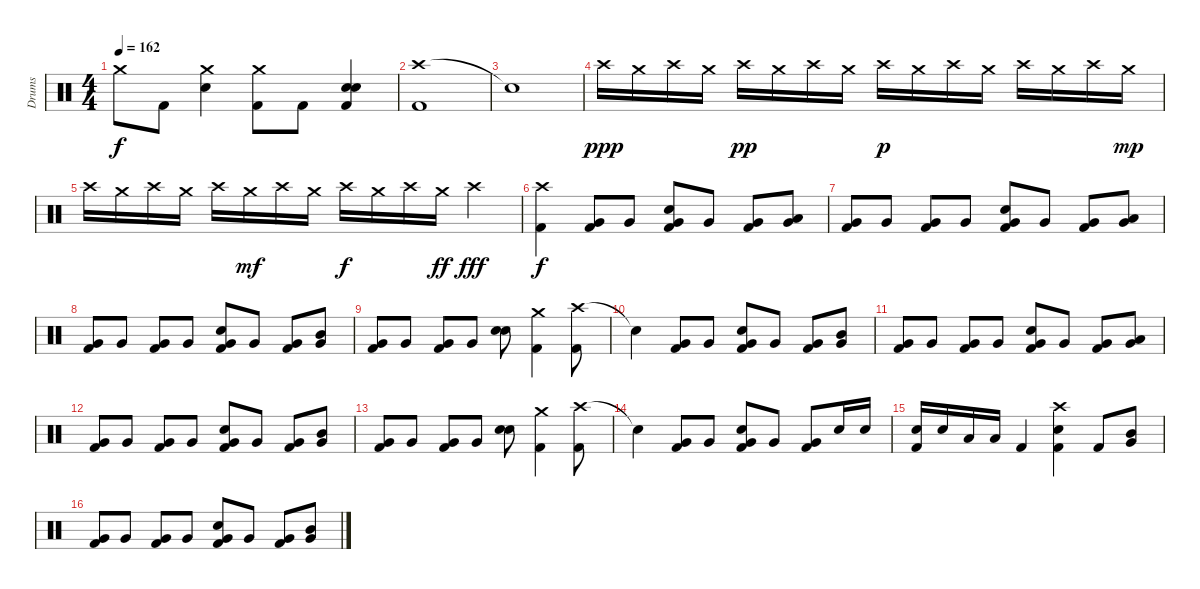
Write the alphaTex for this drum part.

\track ("Drums" "Drums") {instrument percussion}
\staff {score}
\articulation defaults
\ts (4 4)
\tempo 162
\clef neutral
\ks c "Crash medium (hit)".8{dy f} "Kick (hit) 2".8
("Crash medium (hit)" "Snare (hit) 2").4 ("Crash medium (hit)" "Kick (hit) 2").8 "Kick (hit) 2".8 ("Snare (hit) 2" "Snare (hit) 2" "Kick (hit) 2").4 |
("Crash high (hit)" "Kick (hit) 2").1 |
"Snare (hit)"{t}.1 |
"Crash high (hit)".16{dy ppp} "Crash medium (hit)".16 "Crash high (hit)".16 "Crash medium (hit)".16 "Crash high (hit)".16{dy pp} "Crash medium (hit)".16 "Crash high (hit)".16 "Crash medium (hit)".16 "Crash high (hit)".16{dy p} "Crash medium (hit)".16 "Crash high (hit)".16 "Crash medium (hit)".16 "Crash high (hit)".16 "Crash medium (hit)".16 "Crash high (hit)".16 "Crash medium (hit)".16{dy mp} |
"Crash high (hit)".16 "Crash medium (hit)".16 "Crash high (hit)".16 "Crash medium (hit)".16 "Crash high (hit)".16 "Crash medium (hit)".16{dy mf} "Crash high (hit)".16 "Crash medium (hit)".16 "Crash high (hit)".16{dy f} "Crash medium (hit)".16 "Crash high (hit)".16 "Crash medium (hit)".16{dy ff} "Crash high (hit)".4{dy fff} |
("Crash high (hit)" "Kick (hit) 2").4{dy f} ("Very Low Tom (hit)" "Kick (hit) 2").8 "Very Low Tom (hit)".8 ("Very Low Tom (hit)" "Snare (hit) 2" "Kick (hit) 2").8 "Very Low Tom (hit)".8 ("Very Low Tom (hit)" "Kick (hit) 2").8 ("Low Tom (hit)" "Very Low Tom (hit)").8 |
("Very Low Tom (hit)" "Kick (hit) 2").8 "Very Low Tom (hit)".8 ("Very Low Tom (hit)" "Kick (hit) 2").8 "Very Low Tom (hit)".8 ("Very Low Tom (hit)" "Snare (hit) 2" "Kick (hit) 2").8 "Very Low Tom (hit)".8 ("Very Low Tom (hit)" "Kick (hit) 2").8 ("Low Tom (hit)" "Very Low Tom (hit)").8 |
("Very Low Tom (hit)" "Kick (hit) 2").8 "Very Low Tom (hit)".8 ("Very Low Tom (hit)" "Kick (hit) 2").8 "Very Low Tom (hit)".8 ("Very Low Tom (hit)" "Snare (hit) 2" "Kick (hit) 2").8 "Very Low Tom (hit)".8 ("Very Low Tom (hit)" "Kick (hit) 2").8 ("Mid Tom (hit)" "Very Low Tom (hit)").8 |
("Very Low Tom (hit)" "Kick (hit) 2").8 "Very Low Tom (hit)".8 ("Very Low Tom (hit)" "Kick (hit) 2").8 "Very Low Tom (hit)".8 ("Snare (hit) 2" "Snare (hit) 2").8 ("Crash medium (hit)" "Kick (hit) 2").4 ("Crash high (hit)" "Kick (hit) 2").8 |
"Snare (hit)"{t}.4 ("Very Low Tom (hit)" "Kick (hit) 2").8 "Very Low Tom (hit)".8 ("Very Low Tom (hit)" "Snare (hit) 2" "Kick (hit) 2").8 "Very Low Tom (hit)".8 ("Very Low Tom (hit)" "Kick (hit) 2").8 ("Mid Tom (hit)" "Very Low Tom (hit)").8 |
("Very Low Tom (hit)" "Kick (hit) 2").8 "Very Low Tom (hit)".8 ("Very Low Tom (hit)" "Kick (hit) 2").8 "Very Low Tom (hit)".8 ("Very Low Tom (hit)" "Snare (hit) 2" "Kick (hit) 2").8 "Very Low Tom (hit)".8 ("Very Low Tom (hit)" "Kick (hit) 2").8 ("Low Tom (hit)" "Very Low Tom (hit)").8 |
("Very Low Tom (hit)" "Kick (hit) 2").8 "Very Low Tom (hit)".8 ("Very Low Tom (hit)" "Kick (hit) 2").8 "Very Low Tom (hit)".8 ("Very Low Tom (hit)" "Snare (hit) 2" "Kick (hit) 2").8 "Very Low Tom (hit)".8 ("Very Low Tom (hit)" "Kick (hit) 2").8 ("Mid Tom (hit)" "Very Low Tom (hit)").8 |
("Very Low Tom (hit)" "Kick (hit) 2").8 "Very Low Tom (hit)".8 ("Very Low Tom (hit)" "Kick (hit) 2").8 "Very Low Tom (hit)".8 ("Snare (hit) 2" "Snare (hit) 2").8 ("Crash medium (hit)" "Kick (hit) 2").4 ("Crash high (hit)" "Kick (hit) 2").8 |
"Snare (hit)"{t}.4 ("Very Low Tom (hit)" "Kick (hit) 2").8 "Very Low Tom (hit)".8 ("Very Low Tom (hit)" "Snare (hit) 2" "Kick (hit) 2").8 "Very Low Tom (hit)".8 ("Very Low Tom (hit)" "Kick (hit) 2").8 "Snare (hit) 2".16 "Snare (hit) 2".16 |
("Snare (hit) 2" "Kick (hit) 2").16 "Snare (hit) 2".16 "Low Tom (hit)".16 "Low Tom (hit)".16 "Kick (hit) 2".4 ("Crash high (hit)" "Snare (hit) 2" "Kick (hit) 2").4 "Kick (hit) 2".8 ("Mid Tom (hit)" "Very Low Tom (hit)").8 |
("Very Low Tom (hit)" "Kick (hit) 2").8 "Very Low Tom (hit)".8 ("Very Low Tom (hit)" "Kick (hit) 2").8 "Very Low Tom (hit)".8 ("Very Low Tom (hit)" "Snare (hit) 2" "Kick (hit) 2").8 "Very Low Tom (hit)".8 ("Very Low Tom (hit)" "Kick (hit) 2").8 ("Mid Tom (hit)" "Very Low Tom (hit)").8
